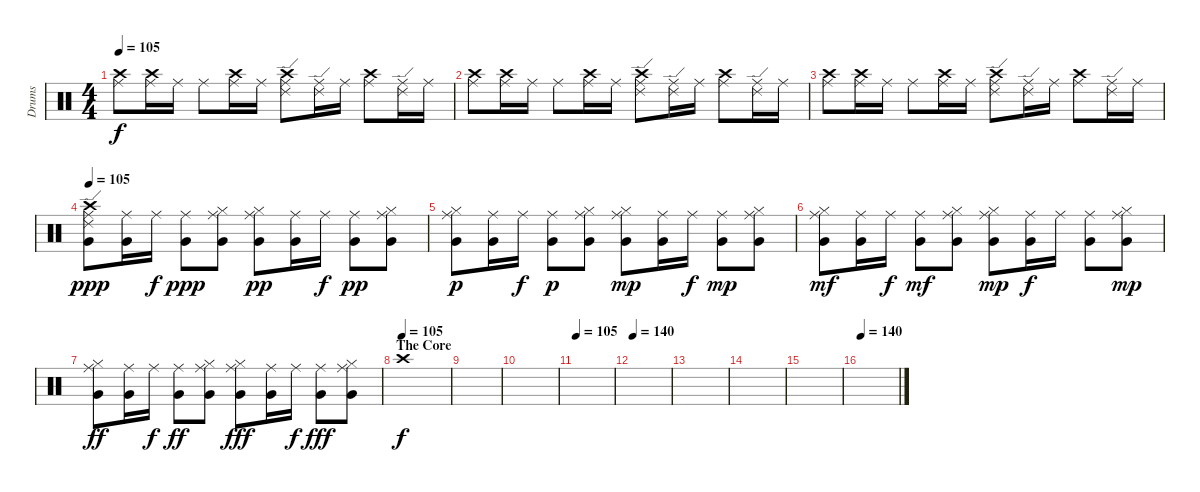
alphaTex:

\track ("Drums" "Drums") {instrument percussion}
\staff {score}
\articulation defaults
\ts (4 4)
\tempo 105
\clef neutral
\ks c
("Crash high (hit)" "Ride (middle)").8{dy f} ("Ride (middle)" "Crash high (hit)").16 "Ride (middle)".16 "Ride (middle)".8 ("Crash high (hit)" "Ride (middle)").16 "Ride (middle)".16 ("Ride (middle)" "Crash high (hit)" "Ride (edge) 2").8 ("Ride (middle)" "Ride (edge) 2").16 "Ride (middle)".16 ("Crash high (hit)" "Ride (middle)").8 ("Ride (middle)" "Ride (edge) 2").16 "Ride (middle)".16 |
("Crash high (hit)" "Ride (middle)").8 ("Ride (middle)" "Crash high (hit)").16 "Ride (middle)".16 "Ride (middle)".8 ("Crash high (hit)" "Ride (middle)").16 "Ride (middle)".16 ("Ride (middle)" "Crash high (hit)" "Ride (edge) 2").8 ("Ride (middle)" "Ride (edge) 2").16 "Ride (middle)".16 ("Crash high (hit)" "Ride (middle)").8 ("Ride (middle)" "Ride (edge) 2").16 "Ride (middle)".16 |
("Crash high (hit)" "Ride (middle)").8 ("Ride (middle)" "Crash high (hit)").16 "Ride (middle)".16 "Ride (middle)".8 ("Crash high (hit)" "Ride (middle)").16 "Ride (middle)".16 ("Ride (middle)" "Crash high (hit)" "Ride (edge) 2").8 ("Ride (middle)" "Ride (edge) 2").16 "Ride (middle)".16 ("Crash high (hit)" "Ride (middle)").8 ("Ride (middle)" "Ride (edge) 2").16 "Ride (middle)".16 |
\tempo 105
("Crash high (hit)" "Ride (middle)" "Ride (edge) 2" "Very Low Tom (hit)").8{dy ppp} ("Ride (middle)" "Very Low Tom (hit)").16 "Ride (middle)".16{dy f} ("Ride (middle)" "Very Low Tom (hit)").8{dy ppp} ("Ride (middle)" "Hi-Hat (closed)" "Very Low Tom (hit)").8 ("Ride (middle)" "Hi-Hat (closed)" "Very Low Tom (hit)").8{dy pp} ("Ride (middle)" "Very Low Tom (hit)").16 "Ride (middle)".16{dy f} ("Ride (middle)" "Very Low Tom (hit)").8{dy pp} ("Ride (middle)" "Hi-Hat (closed)" "Very Low Tom (hit)").8 |
("Ride (middle)" "Hi-Hat (closed)" "Very Low Tom (hit)").8{dy p} ("Ride (middle)" "Very Low Tom (hit)").16 "Ride (middle)".16{dy f} ("Ride (middle)" "Very Low Tom (hit)").8{dy p} ("Ride (middle)" "Hi-Hat (closed)" "Very Low Tom (hit)").8 ("Ride (middle)" "Hi-Hat (closed)" "Very Low Tom (hit)").8{dy mp} ("Ride (middle)" "Very Low Tom (hit)").16 "Ride (middle)".16{dy f} ("Ride (middle)" "Very Low Tom (hit)").8{dy mp} ("Ride (middle)" "Hi-Hat (closed)" "Very Low Tom (hit)").8 |
("Ride (middle)" "Hi-Hat (closed)" "Very Low Tom (hit)").8{dy mf} ("Ride (middle)" "Very Low Tom (hit)").16 "Ride (middle)".16{dy f} ("Ride (middle)" "Very Low Tom (hit)").8{dy mf} ("Ride (middle)" "Hi-Hat (closed)" "Very Low Tom (hit)").8 ("Ride (middle)" "Hi-Hat (closed)" "Very Low Tom (hit)").8{dy mp} ("Ride (middle)" "Very Low Tom (hit)").16{dy f} "Ride (middle)".16 ("Ride (middle)" "Very Low Tom (hit)").8 ("Ride (middle)" "Hi-Hat (closed)" "Very Low Tom (hit)").8{dy mp} |
("Ride (middle)" "Hi-Hat (closed)" "Very Low Tom (hit)").8{dy ff} ("Ride (middle)" "Very Low Tom (hit)").16 "Ride (middle)".16{dy f} ("Ride (middle)" "Very Low Tom (hit)").8{dy ff} ("Ride (middle)" "Hi-Hat (closed)" "Very Low Tom (hit)").8 ("Ride (middle)" "Hi-Hat (closed)" "Very Low Tom (hit)").8{dy fff} ("Ride (middle)" "Very Low Tom (hit)").16 "Ride (middle)".16{dy f} ("Ride (middle)" "Very Low Tom (hit)").8{dy fff} ("Ride (middle)" "Hi-Hat (closed)" "Very Low Tom (hit)").8 |
\section ("" "The Core")
\tempo (105)
"Crash high (hit)".1{dy f} |
|
|
\tempo 105
|
\tempo 140
|
|
|
|
\tempo 140
